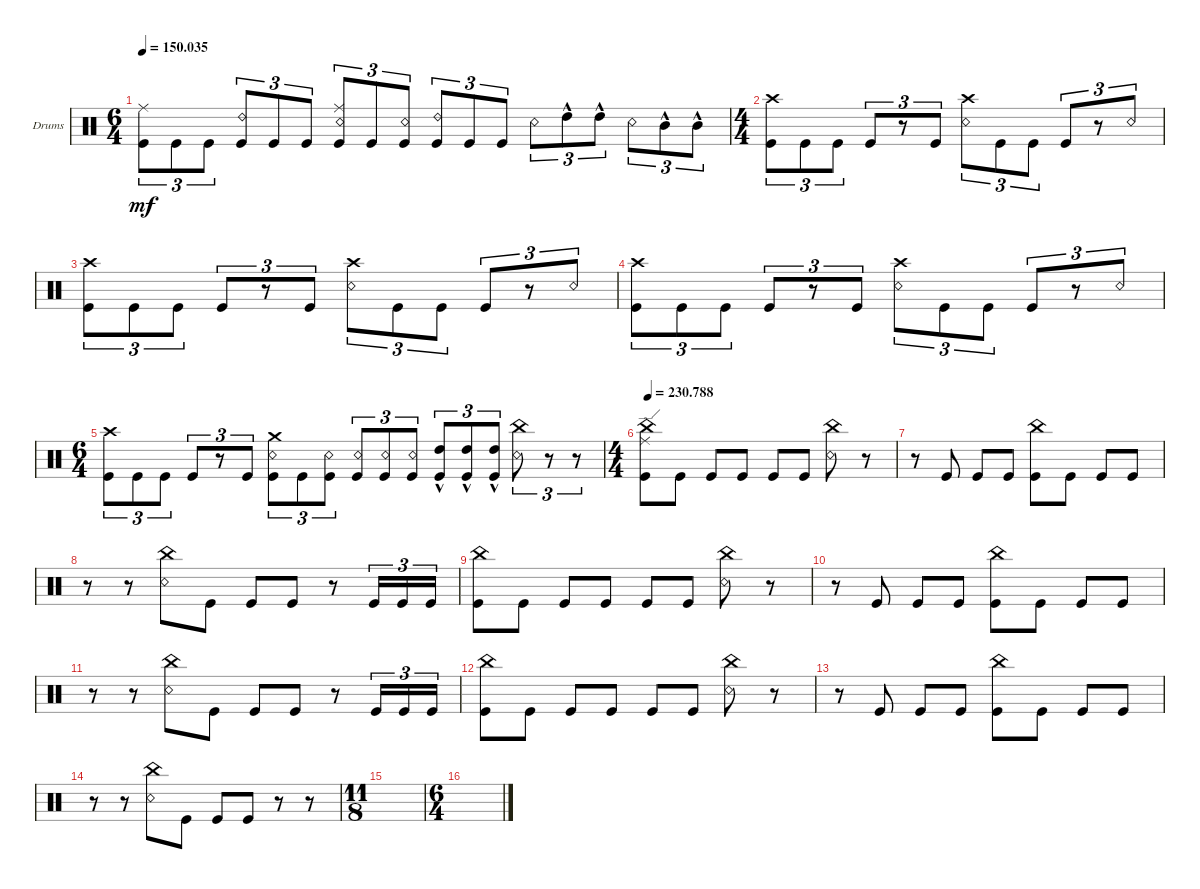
\bracketExtendMode groupsimilarinstruments
\firstSystemTrackNameOrientation horizontal
\otherSystemsTrackNameOrientation horizontal
\track ("Drumkit" "Drums") {solo instrument percussion}
\staff {score}
\articulation defaults
\ts (6 4)
\tempo
150.035
\accidentals auto
\clef neutral
\ottava regular
\simile none
\ks c
("Kick (hit)" "Ride (middle)").8{tu (3 2) dy mf} "Kick (hit)".8{tu (3 2)} "Kick (hit)".8{tu (3 2)} ("Kick (hit)" "Ride (bell) 2").8{tu (3 2)} "Kick (hit)".8{tu (3 2)} "Kick (hit)".8{tu (3 2)} ("Kick (hit)" "Ride (middle)" "Snare (rim shot)").8{tu (3 2)} "Kick (hit)".8{tu (3 2)} ("Kick (hit)" "Snare (rim shot)").8{tu (3 2)} ("Kick (hit)" "Ride (bell) 2").8{tu (3 2)} "Kick (hit)".8{tu (3 2)} "Kick (hit)".8{tu (3 2)} "Snare (rim shot)".8{tu (3 2)} "High Tom (hit)"{hac}.8{tu (3 2)} "High Tom (hit)"{hac}.8{tu (3 2)} "Snare (rim shot)".8{tu (3 2)} "Mid Tom (hit)"{hac}.8{tu (3 2)} "Mid Tom (hit)"{hac}.8{tu (3 2)} |
\ts (4 4)
("Kick (hit)" "Crash high (hit)").8{tu (3 2)} "Kick (hit)".8{tu (3 2)} "Kick (hit)".8{tu (3 2)} "Kick (hit)".8{tu (3 2)} r.8{tu (3 2)} "Kick (hit)".8{tu (3 2)} ("Snare (rim shot)" "Crash high (hit)").8{tu (3 2)} "Kick (hit)".8{tu (3 2)} "Kick (hit)".8{tu (3 2)} "Kick (hit)".8{tu (3 2)} r.8{tu (3 2)} "Snare (rim shot)".8{tu (3 2)} |
("Kick (hit)" "Crash high (hit)").8{tu (3 2)} "Kick (hit)".8{tu (3 2)} "Kick (hit)".8{tu (3 2)} "Kick (hit)".8{tu (3 2)} r.8{tu (3 2)} "Kick (hit)".8{tu (3 2)} ("Snare (rim shot)" "Crash high (hit)").8{tu (3 2)} "Kick (hit)".8{tu (3 2)} "Kick (hit)".8{tu (3 2)} "Kick (hit)".8{tu (3 2)} r.8{tu (3 2)} "Snare (rim shot)".8{tu (3 2)} |
("Kick (hit)" "Crash high (hit)").8{tu (3 2)} "Kick (hit)".8{tu (3 2)} "Kick (hit)".8{tu (3 2)} "Kick (hit)".8{tu (3 2)} r.8{tu (3 2)} "Kick (hit)".8{tu (3 2)} ("Snare (rim shot)" "Crash high (hit)").8{tu (3 2)} "Kick (hit)".8{tu (3 2)} "Kick (hit)".8{tu (3 2)} "Kick (hit)".8{tu (3 2)} r.8{tu (3 2)} "Snare (rim shot)".8{tu (3 2)} |
\ts (6 4)
("Kick (hit)" "Crash high (hit)").8{tu (3 2)} "Kick (hit)".8{tu (3 2)} "Kick (hit)".8{tu (3 2)} "Kick (hit)".8{tu (3 2)} r.8{tu (3 2)} "Kick (hit)".8{tu (3 2)} ("Kick (hit)" "Snare (rim shot)" "Crash medium (hit)").8{tu (3 2)} "Kick (hit)".8{tu (3 2)} ("Kick (hit)" "Snare (rim shot)").8{tu (3 2)} ("Kick (hit)" "Snare (rim shot)").8{tu (3 2)} ("Kick (hit)" "Snare (rim shot)").8{tu (3 2)} ("Kick (hit)" "Snare (rim shot)").8{tu (3 2)} ("Kick (hit)" "High Tom (hit)"{hac}).8{tu (3 2)} ("Kick (hit)" "High Tom (hit)"{hac}).8{tu (3 2)} ("Kick (hit)" "High Tom (hit)"{hac}).8{tu (3 2)} ("Snare (rim shot)" "China (hit)").8{tu (3 2)} r.8{tu (3 2)} r.8{tu (3 2)} |
\ts (4 4)
\tempo
230.788 ("Kick (hit)" "China (hit)" "Ride (edge)").8 "Kick (hit)".8 "Kick (hit)".8 "Kick (hit)".8 "Kick (hit)".8 "Kick (hit)".8 ("Snare (rim shot)" "China (hit)").8 r.8 |
r.8 "Kick (hit)".8 "Kick (hit)".8 "Kick (hit)".8 ("Kick (hit)" "China (hit)").8 "Kick (hit)".8 "Kick (hit)".8 "Kick (hit)".8 |
r.8 r.8 ("Snare (rim shot)" "China (hit)").8 "Kick (hit)".8 "Kick (hit)".8 "Kick (hit)".8 r.8 "Kick (hit)".16{tu (3 2)} "Kick (hit)".16{tu (3 2)} "Kick (hit)".16{tu (3 2)} |
("Kick (hit)" "China (hit)").8 "Kick (hit)".8 "Kick (hit)".8 "Kick (hit)".8 "Kick (hit)".8 "Kick (hit)".8 ("Snare (rim shot)" "China (hit)").8 r.8 |
r.8 "Kick (hit)".8 "Kick (hit)".8 "Kick (hit)".8 ("Kick (hit)" "China (hit)").8 "Kick (hit)".8 "Kick (hit)".8 "Kick (hit)".8 |
r.8 r.8 ("Snare (rim shot)" "China (hit)").8 "Kick (hit)".8 "Kick (hit)".8 "Kick (hit)".8 r.8 "Kick (hit)".16{tu (3 2)} "Kick (hit)".16{tu (3 2)} "Kick (hit)".16{tu (3 2)} |
("Kick (hit)" "China (hit)").8 "Kick (hit)".8 "Kick (hit)".8 "Kick (hit)".8 "Kick (hit)".8 "Kick (hit)".8 ("Snare (rim shot)" "China (hit)").8 r.8 |
r.8 "Kick (hit)".8 "Kick (hit)".8 "Kick (hit)".8 ("Kick (hit)" "China (hit)").8 "Kick (hit)".8 "Kick (hit)".8 "Kick (hit)".8 |
r.8 r.8 ("Snare (rim shot)" "China (hit)").8 "Kick (hit)".8 "Kick (hit)".8 "Kick (hit)".8 r.8 r.8 |
\ts (11 8)
|
\ts (6 4)
